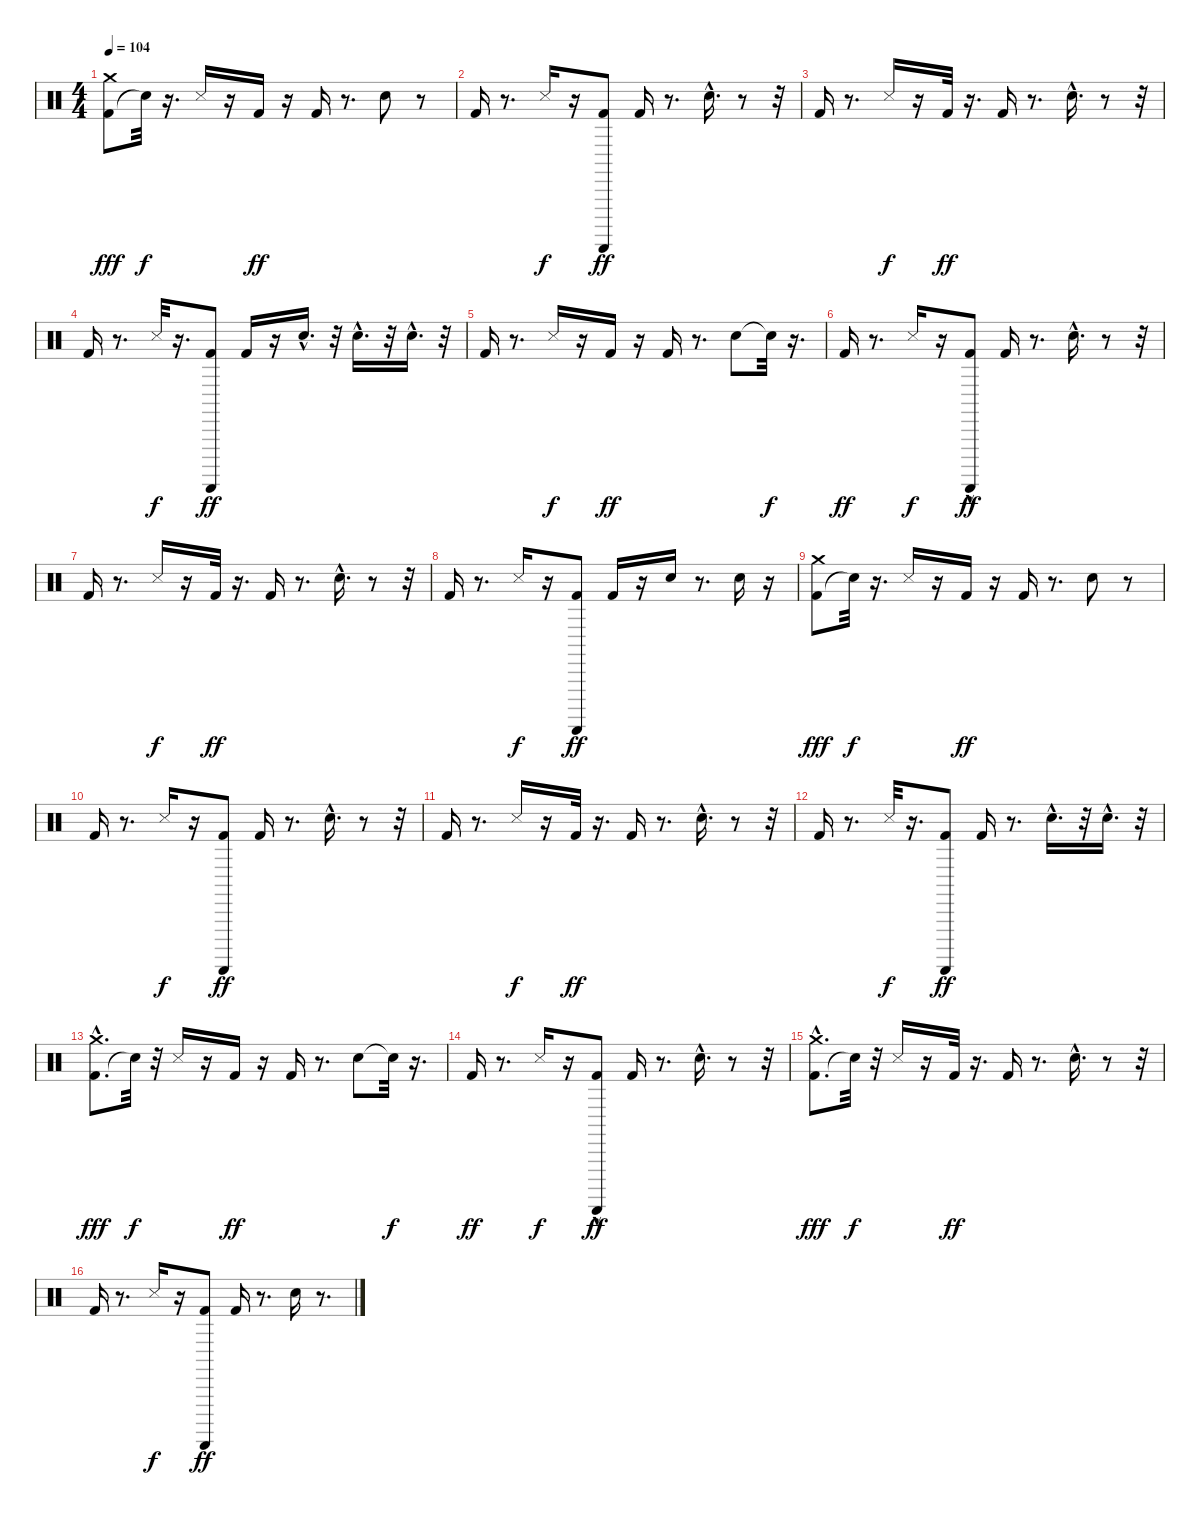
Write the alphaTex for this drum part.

\track "" {instrument percussion}
\staff {score}
\articulation defaults
\ts (4 4)
\tempo 104
\clef neutral
\ks c
("Kick (hit) 2" "Crash medium (hit)").8{dy fff} "Snare (hit)"{t}.32{dy f} r.16{d} "Snare (side stick) 3".16 r.16 "Kick (hit) 2".16{dy ff} r.16 "Kick (hit) 2".16 r.8{d} "Snare (hit) 2".8 r.8 |
"Kick (hit) 2".16 r.8{d} "Snare (side stick) 3".16{dy f} r.16 ("Kick (hit) 2" "Guiro (scrap-return)").8{dy ff} "Kick (hit) 2".16 r.8{d} "Snare (hit) 2"{hac}.16{d} r.8 r.32 |
"Kick (hit) 2".16 r.8{d} "Snare (side stick) 3".16{dy f} r.16 "Kick (hit) 2".32{dy ff} r.16{d} "Kick (hit) 2".16 r.8{d} "Snare (hit) 2"{hac}.16{d} r.8 r.32 |
"Kick (hit) 2".16 r.8{d} "Snare (side stick) 3".32{dy f} r.16{d} ("Kick (hit) 2" "Guiro (scrap-return)").8{dy ff} "Kick (hit) 2".16 r.16 "Snare (hit) 2"{hac}.16{d} r.32 "Snare (hit) 2"{hac}.16{d} r.32 "Snare (hit) 2"{hac}.16{d} r.32 |
"Kick (hit) 2".16 r.8{d} "Snare (side stick) 3".16{dy f} r.16 "Kick (hit) 2".16{dy ff} r.16 "Kick (hit) 2".16 r.8{d} "Snare (hit) 2".8 "Snare (hit)"{t}.32{dy f} r.16{d} |
"Kick (hit) 2".16{dy ff} r.8{d} "Snare (side stick) 3".16{dy f} r.16 ("Kick (hit) 2" "Guiro (scrap-return)"{hac}).8{dy ff} "Kick (hit) 2".16 r.8{d} "Snare (hit) 2"{hac}.16{d} r.8 r.32 |
"Kick (hit) 2".16 r.8{d} "Snare (side stick) 3".16{dy f} r.16 "Kick (hit) 2".32{dy ff} r.16{d} "Kick (hit) 2".16 r.8{d} "Snare (hit) 2"{hac}.16{d} r.8 r.32 |
"Kick (hit) 2".16 r.8{d} "Snare (side stick) 3".16{dy f} r.16 ("Kick (hit) 2" "Guiro (scrap-return)").8{dy ff} "Kick (hit) 2".16 r.16 "Snare (hit) 2".16 r.8{d} "Snare (hit) 2".16 r.16 |
("Kick (hit) 2" "Crash medium (hit)").8{dy fff} "Snare (hit)"{t}.32{dy f} r.16{d} "Snare (side stick) 3".16 r.16 "Kick (hit) 2".16{dy ff} r.16 "Kick (hit) 2".16 r.8{d} "Snare (hit) 2".8 r.8 |
"Kick (hit) 2".16 r.8{d} "Snare (side stick) 3".16{dy f} r.16 ("Kick (hit) 2" "Guiro (scrap-return)").8{dy ff} "Kick (hit) 2".16 r.8{d} "Snare (hit) 2"{hac}.16{d} r.8 r.32 |
"Kick (hit) 2".16 r.8{d} "Snare (side stick) 3".16{dy f} r.16 "Kick (hit) 2".32{dy ff} r.16{d} "Kick (hit) 2".16 r.8{d} "Snare (hit) 2"{hac}.16{d} r.8 r.32 |
"Kick (hit) 2".16 r.8{d} "Snare (side stick) 3".32{dy f} r.16{d} ("Kick (hit) 2" "Guiro (scrap-return)").8{dy ff} "Kick (hit) 2".16 r.8{d} "Snare (hit) 2"{hac}.16{d} r.32 "Snare (hit) 2"{hac}.16{d} r.32 |
("Kick (hit) 2" "Crash medium (hit)"{hac}).8{d dy fff} "Snare (hit)"{t}.32{dy f} r.32 "Snare (side stick) 3".16 r.16 "Kick (hit) 2".16{dy ff} r.16 "Kick (hit) 2".16 r.8{d} "Snare (hit) 2".8 "Snare (hit)"{t}.32{dy f} r.16{d} |
"Kick (hit) 2".16{dy ff} r.8{d} "Snare (side stick) 3".16{dy f} r.16 ("Kick (hit) 2" "Guiro (scrap-return)"{hac}).8{dy ff} "Kick (hit) 2".16 r.8{d} "Snare (hit) 2"{hac}.16{d} r.8 r.32 |
("Kick (hit) 2" "Crash medium (hit)"{hac}).8{d dy fff} "Snare (hit)"{t}.32{dy f} r.32 "Snare (side stick) 3".16 r.16 "Kick (hit) 2".32{dy ff} r.16{d} "Kick (hit) 2".16 r.8{d} "Snare (hit) 2"{hac}.16{d} r.8 r.32 |
"Kick (hit) 2".16 r.8{d} "Snare (side stick) 3".16{dy f} r.16 ("Kick (hit) 2" "Guiro (scrap-return)").8{dy ff} "Kick (hit) 2".16 r.8{d} "Snare (hit) 2".16 r.8{d}
